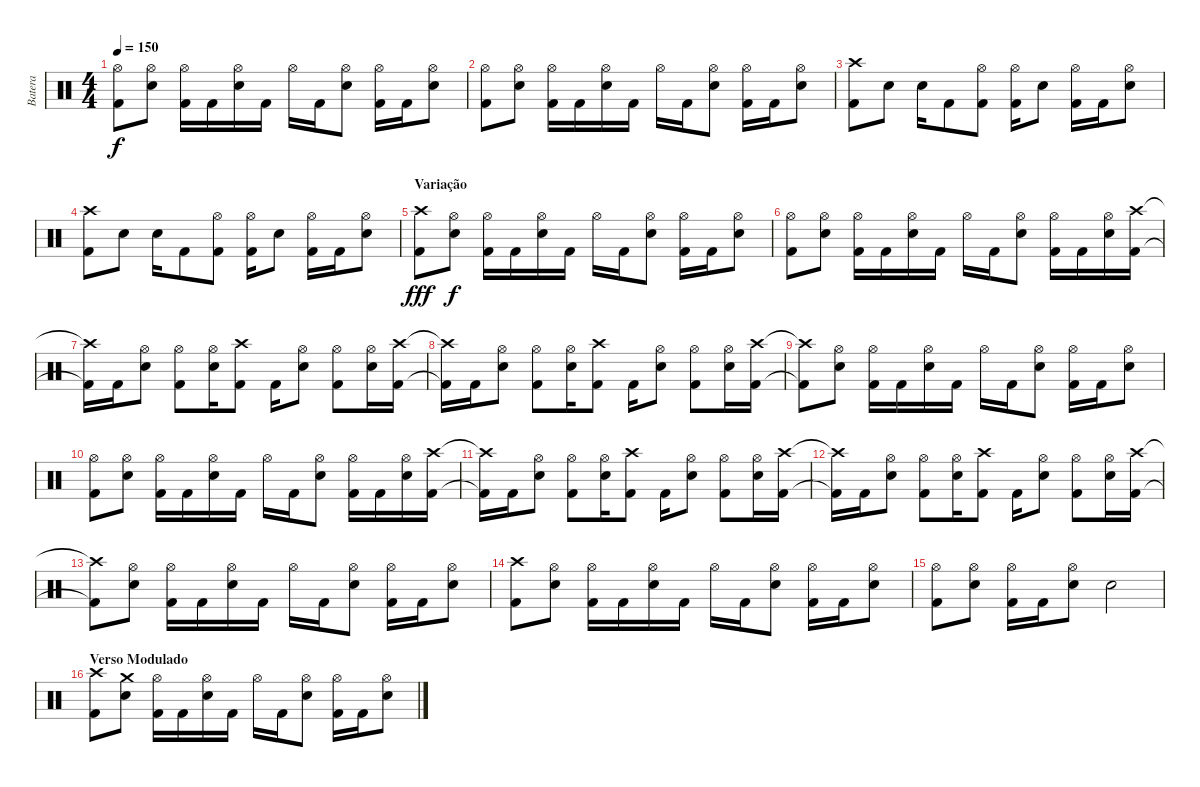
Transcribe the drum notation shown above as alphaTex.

\track ("Batera" "Batera") {instrument percussion}
\staff {score}
\articulation defaults
\ts (4 4)
\tempo 150
\clef neutral
\ks c
("Hi-Hat (open)" "Kick (hit) 2").8{dy f} ("Hi-Hat (open)" "Snare (hit) 2").8 ("Hi-Hat (open)" "Kick (hit) 2").16 "Kick (hit) 2".16 ("Hi-Hat (open)" "Snare (hit) 2").16 "Kick (hit) 2".16 "Hi-Hat (open)".16 "Kick (hit) 2".16 ("Hi-Hat (open)" "Snare (hit) 2").8 ("Hi-Hat (open)" "Kick (hit) 2").16 "Kick (hit) 2".16 ("Hi-Hat (open)" "Snare (hit) 2").8 |
("Hi-Hat (open)" "Kick (hit) 2").8 ("Hi-Hat (open)" "Snare (hit) 2").8 ("Hi-Hat (open)" "Kick (hit) 2").16 "Kick (hit) 2".16 ("Hi-Hat (open)" "Snare (hit) 2").16 "Kick (hit) 2".16 "Hi-Hat (open)".16 "Kick (hit) 2".16 ("Hi-Hat (open)" "Snare (hit) 2").8 ("Hi-Hat (open)" "Kick (hit) 2").16 "Kick (hit) 2".16 ("Hi-Hat (open)" "Snare (hit) 2").8 |
("Crash high (hit)" "Kick (hit) 2").8 "Snare (hit) 2".8 "Snare (hit) 2".16 "Kick (hit) 2".8 ("Hi-Hat (open)" "Kick (hit) 2").8 ("Hi-Hat (open)" "Kick (hit) 2").16 "Snare (hit) 2".8 ("Hi-Hat (open)" "Kick (hit) 2").16 "Kick (hit) 2".16 ("Hi-Hat (open)" "Snare (hit) 2").8 |
("Crash high (hit)" "Kick (hit) 2").8 "Snare (hit) 2".8 "Snare (hit) 2".16 "Kick (hit) 2".8 ("Hi-Hat (open)" "Kick (hit) 2").8 ("Hi-Hat (open)" "Kick (hit) 2").16 "Snare (hit) 2".8 ("Hi-Hat (open)" "Kick (hit) 2").16 "Kick (hit) 2".16 ("Hi-Hat (open)" "Snare (hit) 2").8 |
\section ("" "Variação")
("Crash high (hit)" "Kick (hit) 2").8{dy fff} ("Hi-Hat (open)" "Snare (hit) 2").8{dy f} ("Hi-Hat (open)" "Kick (hit) 2").16 "Kick (hit) 2".16 ("Hi-Hat (open)" "Snare (hit) 2").16 "Kick (hit) 2".16 "Hi-Hat (open)".16 "Kick (hit) 2".16 ("Hi-Hat (open)" "Snare (hit) 2").8 ("Hi-Hat (open)" "Kick (hit) 2").16 "Kick (hit) 2".16 ("Hi-Hat (open)" "Snare (hit) 2").8 |
("Hi-Hat (open)" "Kick (hit) 2").8 ("Hi-Hat (open)" "Snare (hit) 2").8 ("Hi-Hat (open)" "Kick (hit) 2").16 "Kick (hit) 2".16 ("Hi-Hat (open)" "Snare (hit) 2").16 "Kick (hit) 2".16 "Hi-Hat (open)".16 "Kick (hit) 2".16 ("Hi-Hat (open)" "Snare (hit) 2").8 ("Hi-Hat (open)" "Kick (hit) 2").16 "Kick (hit) 2".16 ("Hi-Hat (open)" "Snare (hit) 2").16 ("Crash high (hit)" "Kick (hit) 2").16 |
("Crash high (hit)"{t} "Kick (hit) 2"{t}).16 "Kick (hit) 2".16 ("Hi-Hat (open)" "Snare (hit) 2").8 ("Hi-Hat (open)" "Kick (hit) 2").8 ("Hi-Hat (open)" "Snare (hit) 2").16 ("Crash high (hit)" "Kick (hit) 2").8 "Kick (hit) 2".16 ("Hi-Hat (open)" "Snare (hit) 2").8 ("Hi-Hat (open)" "Kick (hit) 2").8 ("Hi-Hat (open)" "Snare (hit) 2").16 ("Crash high (hit)" "Kick (hit) 2").16 |
("Crash high (hit)"{t} "Kick (hit) 2"{t}).16 "Kick (hit) 2".16 ("Hi-Hat (open)" "Snare (hit) 2").8 ("Hi-Hat (open)" "Kick (hit) 2").8 ("Hi-Hat (open)" "Snare (hit) 2").16 ("Crash high (hit)" "Kick (hit) 2").8 "Kick (hit) 2".16 ("Hi-Hat (open)" "Snare (hit) 2").8 ("Hi-Hat (open)" "Kick (hit) 2").8 ("Hi-Hat (open)" "Snare (hit) 2").16 ("Crash high (hit)" "Kick (hit) 2").16 |
("Crash high (hit)"{t} "Kick (hit) 2"{t}).8 ("Hi-Hat (open)" "Snare (hit) 2").8 ("Hi-Hat (open)" "Kick (hit) 2").16 "Kick (hit) 2".16 ("Hi-Hat (open)" "Snare (hit) 2").16 "Kick (hit) 2".16 "Hi-Hat (open)".16 "Kick (hit) 2".16 ("Hi-Hat (open)" "Snare (hit) 2").8 ("Hi-Hat (open)" "Kick (hit) 2").16 "Kick (hit) 2".16 ("Hi-Hat (open)" "Snare (hit) 2").8 |
("Hi-Hat (open)" "Kick (hit) 2").8 ("Hi-Hat (open)" "Snare (hit) 2").8 ("Hi-Hat (open)" "Kick (hit) 2").16 "Kick (hit) 2".16 ("Hi-Hat (open)" "Snare (hit) 2").16 "Kick (hit) 2".16 "Hi-Hat (open)".16 "Kick (hit) 2".16 ("Hi-Hat (open)" "Snare (hit) 2").8 ("Hi-Hat (open)" "Kick (hit) 2").16 "Kick (hit) 2".16 ("Hi-Hat (open)" "Snare (hit) 2").16 ("Crash high (hit)" "Kick (hit) 2").16 |
("Crash high (hit)"{t} "Kick (hit) 2"{t}).16 "Kick (hit) 2".16 ("Hi-Hat (open)" "Snare (hit) 2").8 ("Hi-Hat (open)" "Kick (hit) 2").8 ("Hi-Hat (open)" "Snare (hit) 2").16 ("Crash high (hit)" "Kick (hit) 2").8 "Kick (hit) 2".16 ("Hi-Hat (open)" "Snare (hit) 2").8 ("Hi-Hat (open)" "Kick (hit) 2").8 ("Hi-Hat (open)" "Snare (hit) 2").16 ("Crash high (hit)" "Kick (hit) 2").16 |
("Crash high (hit)"{t} "Kick (hit) 2"{t}).16 "Kick (hit) 2".16 ("Hi-Hat (open)" "Snare (hit) 2").8 ("Hi-Hat (open)" "Kick (hit) 2").8 ("Hi-Hat (open)" "Snare (hit) 2").16 ("Crash high (hit)" "Kick (hit) 2").8 "Kick (hit) 2".16 ("Hi-Hat (open)" "Snare (hit) 2").8 ("Hi-Hat (open)" "Kick (hit) 2").8 ("Hi-Hat (open)" "Snare (hit) 2").16 ("Crash high (hit)" "Kick (hit) 2").16 |
("Crash high (hit)"{t} "Kick (hit) 2"{t}).8 ("Hi-Hat (open)" "Snare (hit) 2").8 ("Hi-Hat (open)" "Kick (hit) 2").16 "Kick (hit) 2".16 ("Hi-Hat (open)" "Snare (hit) 2").16 "Kick (hit) 2".16 "Hi-Hat (open)".16 "Kick (hit) 2".16 ("Hi-Hat (open)" "Snare (hit) 2").8 ("Hi-Hat (open)" "Kick (hit) 2").16 "Kick (hit) 2".16 ("Hi-Hat (open)" "Snare (hit) 2").8 |
("Crash high (hit)" "Kick (hit) 2").8 ("Hi-Hat (open)" "Snare (hit) 2").8 ("Hi-Hat (open)" "Kick (hit) 2").16 "Kick (hit) 2".16 ("Hi-Hat (open)" "Snare (hit) 2").16 "Kick (hit) 2".16 "Hi-Hat (open)".16 "Kick (hit) 2".16 ("Hi-Hat (open)" "Snare (hit) 2").8 ("Hi-Hat (open)" "Kick (hit) 2").16 "Kick (hit) 2".16 ("Hi-Hat (open)" "Snare (hit) 2").8 |
("Hi-Hat (open)" "Kick (hit) 2").8 ("Hi-Hat (open)" "Snare (hit) 2").8 ("Hi-Hat (open)" "Kick (hit) 2").16 "Kick (hit) 2".16 ("Hi-Hat (open)" "Snare (hit) 2").8 "Snare (hit) 2".2 |
\section ("" "Verso Modulado")
("Crash high (hit)" "Kick (hit) 2").8 ("Crash medium (hit)" "Snare (hit) 2").8 ("Hi-Hat (open)" "Kick (hit) 2").16 "Kick (hit) 2".16 ("Hi-Hat (open)" "Snare (hit) 2").16 "Kick (hit) 2".16 "Hi-Hat (open)".16 "Kick (hit) 2".16 ("Hi-Hat (open)" "Snare (hit) 2").8 ("Hi-Hat (open)" "Kick (hit) 2").16 "Kick (hit) 2".16 ("Hi-Hat (open)" "Snare (hit) 2").8
